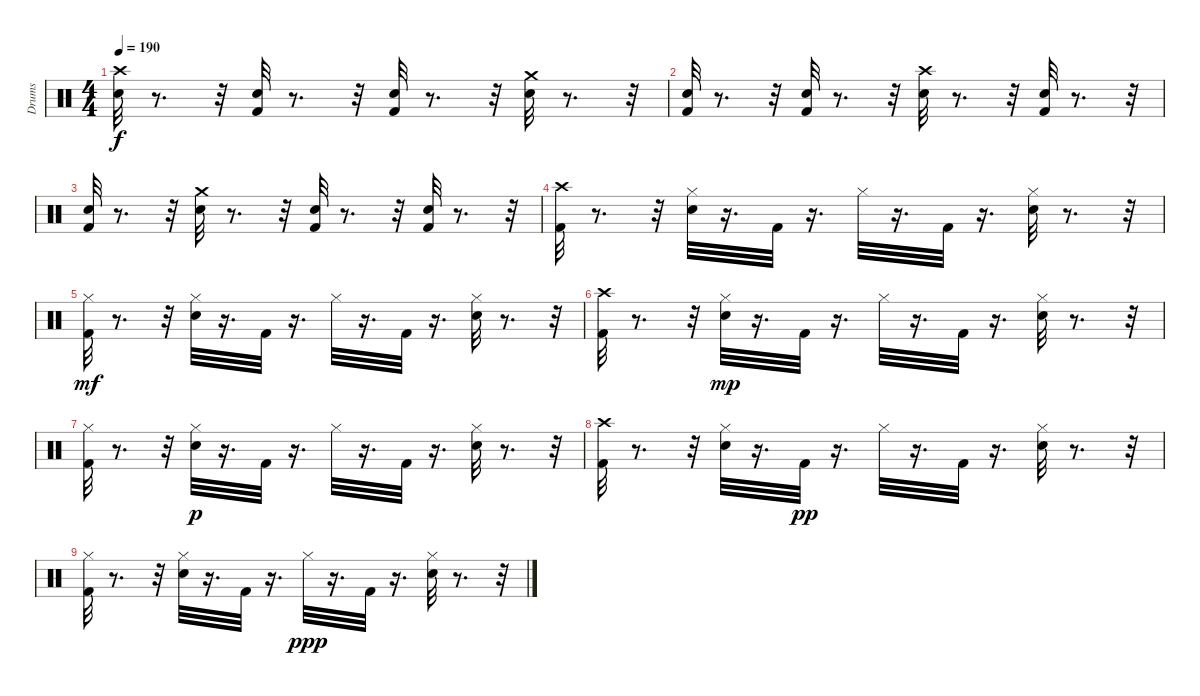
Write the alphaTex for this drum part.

\track ("Drums" "Drums") {instrument percussion}
\staff {score}
\articulation defaults
\ts (4 4)
\tempo 190
\clef neutral
\ks c
("Crash high (hit)" "Snare (hit) 2").32{dy f} r.8{d} r.32 ("Hand Clap (hit)" "Kick (hit) 2").32 r.8{d} r.32 ("Kick (hit) 2" "Hand Clap (hit)").32 r.8{d} r.32 ("Crash medium (hit)" "Snare (hit) 2").32 r.8{d} r.32 |
("Kick (hit) 2" "Hand Clap (hit)").32 r.8{d} r.32 ("Kick (hit) 2" "Hand Clap (hit)").32 r.8{d} r.32 ("Snare (hit) 2" "Crash high (hit)").32 r.8{d} r.32 ("Kick (hit) 2" "Hand Clap (hit)").32 r.8{d} r.32 |
("Kick (hit) 2" "Hand Clap (hit)").32 r.8{d} r.32 ("Crash medium (hit)" "Snare (hit) 2").32 r.8{d} r.32 ("Kick (hit) 2" "Hand Clap (hit)").32 r.8{d} r.32 ("Kick (hit) 2" "Hand Clap (hit)").32 r.8{d} r.32 |
("Crash high (hit)" "Kick (hit) 2").32 r.8{d} r.32 ("Hi-Hat (closed)" "Snare (hit) 2").32 r.16{d} "Kick (hit) 2".32 r.16{d} "Hi-Hat (closed)".32 r.16{d} "Kick (hit) 2".32 r.16{d} ("Hi-Hat (closed)" "Snare (hit) 2").32 r.8{d} r.32 |
("Hi-Hat (closed)" "Kick (hit) 2").32{dy mf} r.8{d} r.32 ("Snare (hit) 2" "Hi-Hat (closed)").32 r.16{d} "Kick (hit) 2".32 r.16{d} "Hi-Hat (closed)".32 r.16{d} "Kick (hit) 2".32 r.16{d} ("Snare (hit) 2" "Hi-Hat (closed)").32 r.8{d} r.32 |
("Crash high (hit)" "Kick (hit) 2").32 r.8{d} r.32 ("Hi-Hat (closed)" "Snare (hit) 2").32{dy mp} r.16{d} "Kick (hit) 2".32 r.16{d} "Hi-Hat (closed)".32 r.16{d} "Kick (hit) 2".32 r.16{d} ("Hi-Hat (closed)" "Snare (hit) 2").32 r.8{d} r.32 |
("Hi-Hat (closed)" "Kick (hit) 2").32 r.8{d} r.32 ("Snare (hit) 2" "Hi-Hat (closed)").32{dy p} r.16{d} "Kick (hit) 2".32 r.16{d} "Hi-Hat (closed)".32 r.16{d} "Kick (hit) 2".32 r.16{d} ("Snare (hit) 2" "Hi-Hat (closed)").32 r.8{d} r.32 |
("Crash high (hit)" "Kick (hit) 2").32 r.8{d} r.32 ("Hi-Hat (closed)" "Snare (hit) 2").32 r.16{d} "Kick (hit) 2".32{dy pp} r.16{d} "Hi-Hat (closed)".32 r.16{d} "Kick (hit) 2".32 r.16{d} ("Hi-Hat (closed)" "Snare (hit) 2").32 r.8{d} r.32 |
("Hi-Hat (closed)" "Kick (hit) 2").32 r.8{d} r.32 ("Snare (hit) 2" "Hi-Hat (closed)").32 r.16{d} "Kick (hit) 2".32 r.16{d} "Hi-Hat (closed)".32{dy ppp} r.16{d} "Kick (hit) 2".32 r.16{d} ("Snare (hit) 2" "Hi-Hat (closed)").32 r.8{d} r.32
